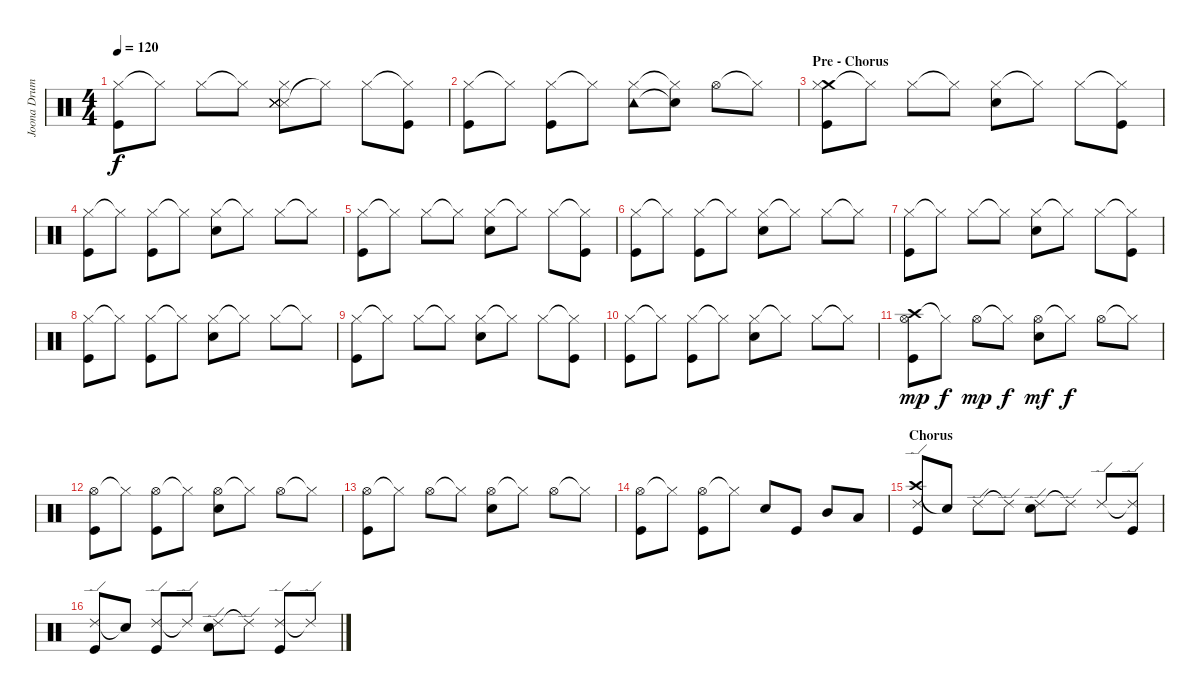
\track ("Joona Drums" "Joona Drum") {instrument percussion}
\staff {score}
\articulation defaults
\ts (4 4)
\tempo 120
\clef neutral
\ks c
("Hi-Hat (closed)" "Kick (hit)").8{dy f} "Hi-Hat (closed)"{t}.8 "Hi-Hat (closed)".8 "Hi-Hat (closed)"{t}.8 ("Snare (side stick) 3" "Hi-Hat (closed)" "Snare (side stick) 3" "Snare (side stick) 3" "Snare (side stick) 3" "Snare (side stick) 3").8 "Hi-Hat (closed)"{t}.8 "Hi-Hat (closed)".8 ("Hi-Hat (closed)"{t} "Kick (hit)").8 |
("Hi-Hat (closed)" "Kick (hit)").8 "Hi-Hat (closed)"{t}.8 ("Hi-Hat (closed)" "Kick (hit)").8 "Hi-Hat (closed)"{t}.8 ("Hi-Hat (closed)" "Tambourine (hit)").8 ("Hi-Hat (closed)"{t} "Snare (hit)"{t}).8 "Hi-Hat (open)".8 "Hi-Hat (closed)"{t}.8 |
\section ("" "Pre - Chorus")
("Crash medium (hit)" "Hi-Hat (closed)" "Kick (hit)").8 "Hi-Hat (closed)"{t}.8 "Hi-Hat (closed)".8 "Hi-Hat (closed)"{t}.8 ("Hi-Hat (closed)" "Snare (hit) 2").8 "Hi-Hat (closed)"{t}.8 "Hi-Hat (closed)".8 ("Hi-Hat (closed)"{t} "Kick (hit)").8 |
("Hi-Hat (closed)" "Kick (hit)").8 "Hi-Hat (closed)"{t}.8 ("Hi-Hat (closed)" "Kick (hit)").8 "Hi-Hat (closed)"{t}.8 ("Hi-Hat (closed)" "Snare (hit) 2").8 "Hi-Hat (closed)"{t}.8 "Hi-Hat (closed)".8 "Hi-Hat (closed)"{t}.8 |
("Hi-Hat (closed)" "Kick (hit)").8 "Hi-Hat (closed)"{t}.8 "Hi-Hat (closed)".8 "Hi-Hat (closed)"{t}.8 ("Hi-Hat (closed)" "Snare (hit) 2").8 "Hi-Hat (closed)"{t}.8 "Hi-Hat (closed)".8 ("Hi-Hat (closed)"{t} "Kick (hit)").8 |
("Hi-Hat (closed)" "Kick (hit)").8 "Hi-Hat (closed)"{t}.8 ("Hi-Hat (closed)" "Kick (hit)").8 "Hi-Hat (closed)"{t}.8 ("Hi-Hat (closed)" "Snare (hit) 2").8 "Hi-Hat (closed)"{t}.8 "Hi-Hat (closed)".8 "Hi-Hat (closed)"{t}.8 |
("Hi-Hat (closed)" "Kick (hit)").8 "Hi-Hat (closed)"{t}.8 "Hi-Hat (closed)".8 "Hi-Hat (closed)"{t}.8 ("Hi-Hat (closed)" "Snare (hit) 2").8 "Hi-Hat (closed)"{t}.8 "Hi-Hat (closed)".8 ("Hi-Hat (closed)"{t} "Kick (hit)").8 |
("Hi-Hat (closed)" "Kick (hit)").8 "Hi-Hat (closed)"{t}.8 ("Hi-Hat (closed)" "Kick (hit)").8 "Hi-Hat (closed)"{t}.8 ("Hi-Hat (closed)" "Snare (hit) 2").8 "Hi-Hat (closed)"{t}.8 "Hi-Hat (closed)".8 "Hi-Hat (closed)"{t}.8 |
("Hi-Hat (closed)" "Kick (hit)").8 "Hi-Hat (closed)"{t}.8 "Hi-Hat (closed)".8 "Hi-Hat (closed)"{t}.8 ("Hi-Hat (closed)" "Snare (hit) 2").8 "Hi-Hat (closed)"{t}.8 "Hi-Hat (closed)".8 ("Hi-Hat (closed)"{t} "Kick (hit)").8 |
("Hi-Hat (closed)" "Kick (hit)").8 "Hi-Hat (closed)"{t}.8 ("Hi-Hat (closed)" "Kick (hit)").8 "Hi-Hat (closed)"{t}.8 ("Hi-Hat (closed)" "Snare (hit) 2").8 "Hi-Hat (closed)"{t}.8 "Hi-Hat (closed)".8 "Hi-Hat (closed)"{t}.8 |
("Crash high (hit)" "Hi-Hat (open)" "Kick (hit)").8{dy mp} "Hi-Hat (closed)"{t}.8{dy f} "Hi-Hat (open)".8{dy mp} "Hi-Hat (closed)"{t}.8{dy f} ("Hi-Hat (open)" "Snare (hit) 2").8{dy mf} "Hi-Hat (closed)"{t}.8{dy f} "Hi-Hat (open)".8 "Hi-Hat (closed)"{t}.8 |
("Hi-Hat (open)" "Kick (hit)").8 "Hi-Hat (closed)"{t}.8 ("Hi-Hat (open)" "Kick (hit)").8 "Hi-Hat (closed)"{t}.8 ("Hi-Hat (open)" "Snare (hit) 2").8 "Hi-Hat (closed)"{t}.8 "Hi-Hat (open)".8 "Hi-Hat (closed)"{t}.8 |
("Hi-Hat (open)" "Kick (hit)").8 "Hi-Hat (closed)"{t}.8 "Hi-Hat (open)".8 "Hi-Hat (closed)"{t}.8 ("Hi-Hat (open)" "Snare (hit) 2").8 "Hi-Hat (closed)"{t}.8 "Hi-Hat (open)".8 "Hi-Hat (closed)"{t}.8 |
("Hi-Hat (open)" "Kick (hit)").8 "Hi-Hat (closed)"{t}.8 ("Hi-Hat (open)" "Kick (hit)").8 "Hi-Hat (closed)"{t}.8 "Snare (hit) 2".8 "Kick (hit)".8 "Mid Tom (hit)".8 "Low Tom (hit)".8 |
\section ("" "Chorus")
("Crash high (hit)" "Ride (edge) 2" "Kick (hit)").8 "Snare (hit)"{t}.8 "Ride (edge) 2".8 "Ride (edge) 2"{t}.8 ("Ride (edge) 2" "Snare (hit) 2").8 "Ride (edge) 2"{t}.8 "Ride (edge) 2".8 ("Ride (edge) 2"{t} "Kick (hit)").8 |
("Ride (edge) 2" "Kick (hit)").8 "Snare (hit)"{t}.8 ("Ride (edge) 2" "Kick (hit)").8 "Ride (edge) 2"{t}.8 ("Ride (edge) 2" "Snare (hit) 2").8 "Ride (edge) 2"{t}.8 ("Ride (edge) 2" "Kick (hit)").8 "Ride (edge) 2"{t}.8
